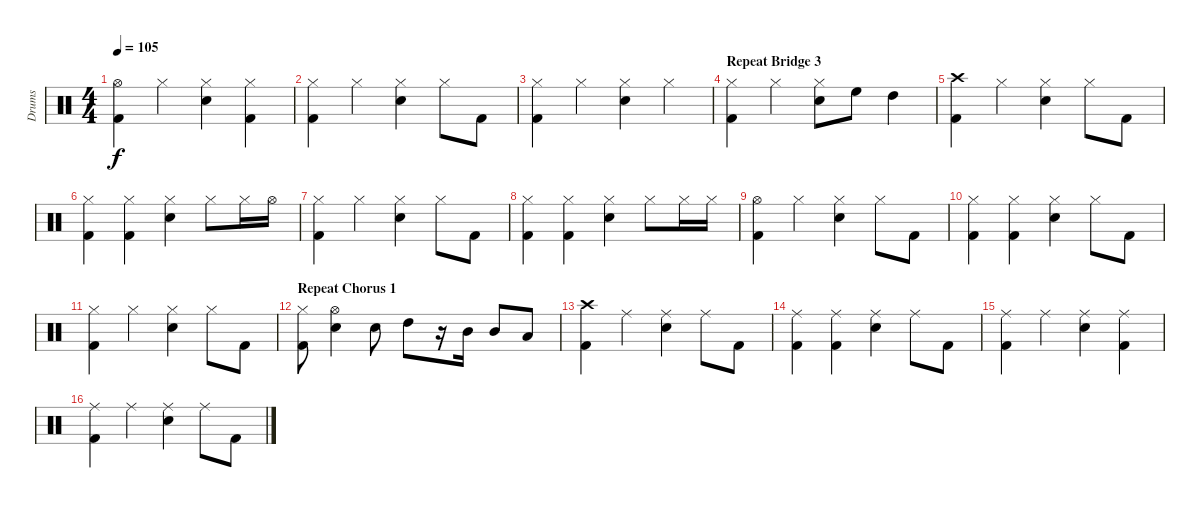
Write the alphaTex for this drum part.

\track ("Drums" "Drums") {instrument percussion}
\staff {score}
\articulation defaults
\ts (4 4)
\tempo 105
\clef neutral
\ks c
("Hi-Hat (open)" "Kick (hit) 2").4{dy f} "Hi-Hat (closed)".4 ("Hi-Hat (closed)" "Snare (hit) 2").4 ("Hi-Hat (closed)" "Kick (hit) 2").4 |
("Hi-Hat (closed)" "Kick (hit) 2").4 "Hi-Hat (closed)".4 ("Hi-Hat (closed)" "Snare (hit) 2").4 "Hi-Hat (closed)".8 "Kick (hit) 2".8 |
("Hi-Hat (closed)" "Kick (hit) 2").4 "Hi-Hat (closed)".4 ("Hi-Hat (closed)" "Snare (hit) 2").4 "Hi-Hat (closed)".4 |
\section ("" "Repeat Bridge 3")
("Hi-Hat (closed)" "Kick (hit) 2").4 "Hi-Hat (closed)".4 ("Hi-Hat (closed)" "Snare (hit) 2").8 "High Floor Tom (hit)".8 "High Tom (hit)".4 |
("Crash high (hit)" "Kick (hit) 2").4 "Hi-Hat (closed)".4 ("Hi-Hat (closed)" "Snare (hit) 2").4 "Hi-Hat (closed)".8 "Kick (hit) 2".8 |
("Hi-Hat (closed)" "Kick (hit) 2").4 ("Hi-Hat (closed)" "Kick (hit) 2").4 ("Hi-Hat (closed)" "Snare (hit) 2").4 "Hi-Hat (closed)".8 "Hi-Hat (closed)".16 "Hi-Hat (open)".16 |
("Hi-Hat (closed)" "Kick (hit) 2").4 "Hi-Hat (closed)".4 ("Hi-Hat (closed)" "Snare (hit) 2").4 "Hi-Hat (closed)".8 "Kick (hit) 2".8 |
("Hi-Hat (closed)" "Kick (hit) 2").4 ("Hi-Hat (closed)" "Kick (hit) 2").4 ("Hi-Hat (closed)" "Snare (hit) 2").4 "Hi-Hat (closed)".8 "Hi-Hat (closed)".16 "Hi-Hat (closed)".16 |
("Hi-Hat (open)" "Kick (hit) 2").4 "Hi-Hat (closed)".4 ("Hi-Hat (closed)" "Snare (hit) 2").4 "Hi-Hat (closed)".8 "Kick (hit) 2".8 |
("Hi-Hat (closed)" "Kick (hit) 2").4 ("Hi-Hat (closed)" "Kick (hit) 2").4 ("Hi-Hat (closed)" "Snare (hit) 2").4 "Hi-Hat (closed)".8 "Kick (hit) 2".8 |
("Hi-Hat (closed)" "Kick (hit) 2").4 "Hi-Hat (closed)".4 ("Hi-Hat (closed)" "Snare (hit) 2").4 "Hi-Hat (closed)".8 "Kick (hit) 2".8 |
\section ("" "Repeat Chorus 1")
("Hi-Hat (closed)" "Kick (hit) 2").8 ("Hi-Hat (open)" "Snare (hit) 2").4 "Snare (hit) 2".8 "High Tom (hit)".8 r.16 "Mid Tom (hit)".16 "Mid Tom (hit)".8 "Low Tom (hit)".8 |
("Crash high (hit)" "Kick (hit) 2").4 "Ride (middle)".4 ("Ride (middle)" "Snare (hit) 2").4 "Ride (middle)".8 "Kick (hit) 2".8 |
("Ride (middle)" "Kick (hit) 2").4 ("Ride (middle)" "Kick (hit) 2").4 ("Ride (middle)" "Snare (hit) 2").4 "Ride (middle)".8 "Kick (hit) 2".8 |
("Ride (middle)" "Kick (hit) 2").4 "Ride (middle)".4 ("Ride (middle)" "Snare (hit) 2").4 ("Ride (middle)" "Kick (hit) 2").4 |
("Ride (middle)" "Kick (hit) 2").4 "Ride (middle)".4 ("Ride (middle)" "Snare (hit) 2").4 "Ride (middle)".8 "Kick (hit) 2".8
